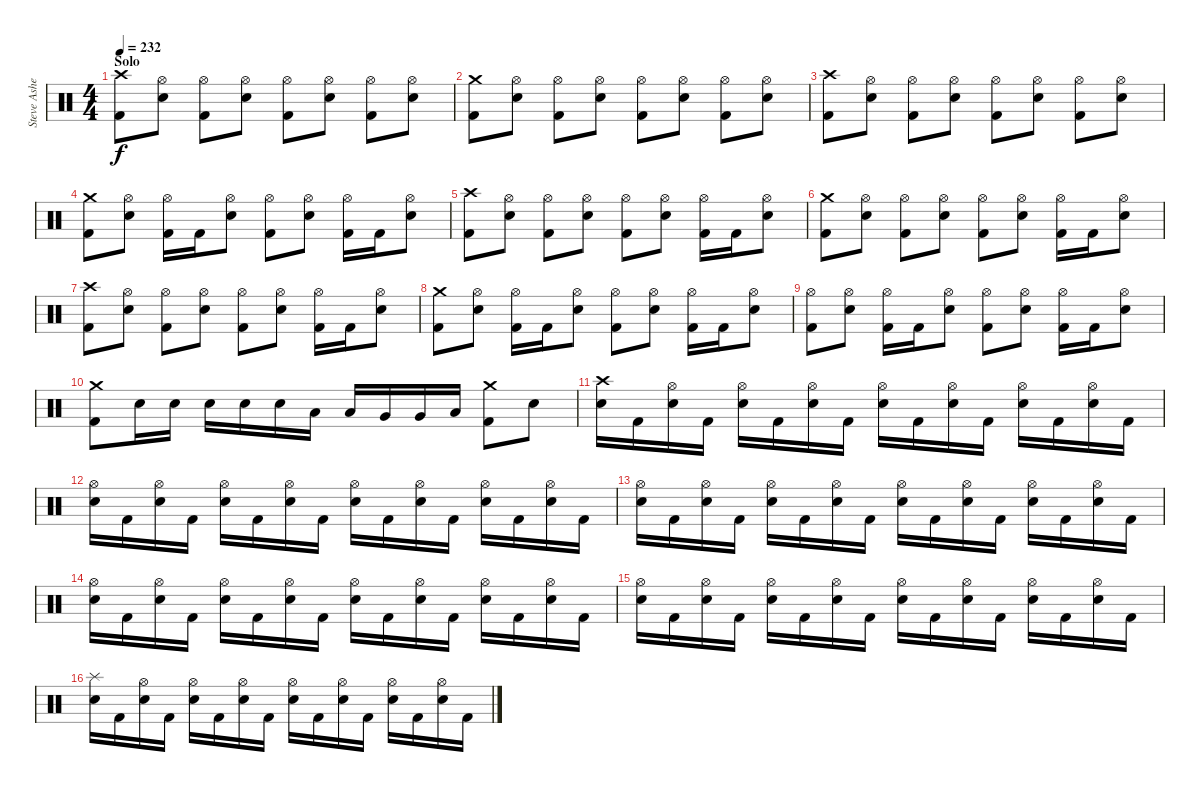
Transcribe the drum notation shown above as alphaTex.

\track ("Steve Asheim" "Steve Ashe") {instrument percussion}
\staff {score}
\articulation defaults
\ts (4 4)
\section ("" "Solo")
\tempo 232
\clef neutral
\ks c
("Crash high (hit)" "Kick (hit) 2").8{dy f} ("Hi-Hat (open)" "Electric Snare (hit)").8 ("Hi-Hat (open)" "Kick (hit) 2").8 ("Hi-Hat (open)" "Electric Snare (hit)").8 ("Hi-Hat (open)" "Kick (hit) 2").8 ("Hi-Hat (open)" "Electric Snare (hit)").8 ("Hi-Hat (open)" "Kick (hit) 2").8 ("Hi-Hat (open)" "Electric Snare (hit)").8 |
("Crash medium (hit)" "Kick (hit) 2").8 ("Hi-Hat (open)" "Electric Snare (hit)").8 ("Hi-Hat (open)" "Kick (hit) 2").8 ("Hi-Hat (open)" "Electric Snare (hit)").8 ("Hi-Hat (open)" "Kick (hit) 2").8 ("Hi-Hat (open)" "Electric Snare (hit)").8 ("Hi-Hat (open)" "Kick (hit) 2").8 ("Hi-Hat (open)" "Electric Snare (hit)").8 |
("Crash high (hit)" "Kick (hit) 2").8 ("Hi-Hat (open)" "Electric Snare (hit)").8 ("Hi-Hat (open)" "Kick (hit) 2").8 ("Hi-Hat (open)" "Electric Snare (hit)").8 ("Hi-Hat (open)" "Kick (hit) 2").8 ("Hi-Hat (open)" "Electric Snare (hit)").8 ("Hi-Hat (open)" "Kick (hit) 2").8 ("Hi-Hat (open)" "Electric Snare (hit)").8 |
("Crash medium (hit)" "Kick (hit) 2").8 ("Hi-Hat (open)" "Electric Snare (hit)").8 ("Hi-Hat (open)" "Kick (hit) 2").16 "Kick (hit) 2".16 ("Hi-Hat (open)" "Electric Snare (hit)").8 ("Hi-Hat (open)" "Kick (hit) 2").8 ("Hi-Hat (open)" "Electric Snare (hit)").8 ("Hi-Hat (open)" "Kick (hit) 2").16 "Kick (hit) 2".16 ("Hi-Hat (open)" "Electric Snare (hit)").8 |
("Crash high (hit)" "Kick (hit) 2").8 ("Hi-Hat (open)" "Electric Snare (hit)").8 ("Hi-Hat (open)" "Kick (hit) 2").8 ("Hi-Hat (open)" "Electric Snare (hit)").8 ("Hi-Hat (open)" "Kick (hit) 2").8 ("Hi-Hat (open)" "Electric Snare (hit)").8 ("Hi-Hat (open)" "Kick (hit) 2").16 "Kick (hit) 2".16 ("Hi-Hat (open)" "Electric Snare (hit)").8 |
("Crash medium (hit)" "Kick (hit) 2").8 ("Hi-Hat (open)" "Electric Snare (hit)").8 ("Hi-Hat (open)" "Kick (hit) 2").8 ("Hi-Hat (open)" "Electric Snare (hit)").8 ("Hi-Hat (open)" "Kick (hit) 2").8 ("Hi-Hat (open)" "Electric Snare (hit)").8 ("Hi-Hat (open)" "Kick (hit) 2").16 "Kick (hit) 2".16 ("Hi-Hat (open)" "Electric Snare (hit)").8 |
("Crash high (hit)" "Kick (hit) 2").8 ("Hi-Hat (open)" "Electric Snare (hit)").8 ("Hi-Hat (open)" "Kick (hit) 2").8 ("Hi-Hat (open)" "Electric Snare (hit)").8 ("Hi-Hat (open)" "Kick (hit) 2").8 ("Hi-Hat (open)" "Electric Snare (hit)").8 ("Hi-Hat (open)" "Kick (hit) 2").16 "Kick (hit) 2".16 ("Hi-Hat (open)" "Electric Snare (hit)").8 |
("Crash medium (hit)" "Kick (hit) 2").8 ("Hi-Hat (open)" "Electric Snare (hit)").8 ("Hi-Hat (open)" "Kick (hit) 2").16 "Kick (hit) 2".16 ("Hi-Hat (open)" "Electric Snare (hit)").8 ("Hi-Hat (open)" "Kick (hit) 2").8 ("Hi-Hat (open)" "Electric Snare (hit)").8 ("Hi-Hat (open)" "Kick (hit) 2").16 "Kick (hit) 2".16 ("Hi-Hat (open)" "Electric Snare (hit)").8 |
("Hi-Hat (open)" "Kick (hit) 2").8 ("Hi-Hat (open)" "Electric Snare (hit)").8 ("Hi-Hat (open)" "Kick (hit) 2").16 "Kick (hit) 2".16 ("Hi-Hat (open)" "Electric Snare (hit)").8 ("Hi-Hat (open)" "Kick (hit) 2").8 ("Hi-Hat (open)" "Electric Snare (hit)").8 ("Hi-Hat (open)" "Kick (hit) 2").16 "Kick (hit) 2".16 ("Hi-Hat (open)" "Electric Snare (hit)").8 |
("Crash medium (hit)" "Kick (hit) 2").8 "Electric Snare (hit)".16 "Electric Snare (hit)".16 "Electric Snare (hit)".16 "Electric Snare (hit)".16 "Electric Snare (hit)".16 "Low Tom (hit)".16 "Low Tom (hit)".16 "Very Low Tom (hit)".16 "Very Low Tom (hit)".16 "Low Floor Tom (hit)".16 ("Crash medium (hit)" "Kick (hit) 2").8 "Electric Snare (hit)".8 |
("Crash high (hit)" "Electric Snare (hit)").16 "Kick (hit) 2".16 ("Hi-Hat (open)" "Electric Snare (hit)").16 "Kick (hit) 2".16 ("Hi-Hat (open)" "Electric Snare (hit)").16 "Kick (hit) 2".16 ("Hi-Hat (open)" "Electric Snare (hit)").16 "Kick (hit) 2".16 ("Hi-Hat (open)" "Electric Snare (hit)").16 "Kick (hit) 2".16 ("Hi-Hat (open)" "Electric Snare (hit)").16 "Kick (hit) 2".16 ("Hi-Hat (open)" "Electric Snare (hit)").16 "Kick (hit) 2".16 ("Hi-Hat (open)" "Electric Snare (hit)").16 "Kick (hit) 2".16 |
("Hi-Hat (open)" "Electric Snare (hit)").16 "Kick (hit) 2".16 ("Hi-Hat (open)" "Electric Snare (hit)").16 "Kick (hit) 2".16 ("Hi-Hat (open)" "Electric Snare (hit)").16 "Kick (hit) 2".16 ("Hi-Hat (open)" "Electric Snare (hit)").16 "Kick (hit) 2".16 ("Hi-Hat (open)" "Electric Snare (hit)").16 "Kick (hit) 2".16 ("Hi-Hat (open)" "Electric Snare (hit)").16 "Kick (hit) 2".16 ("Hi-Hat (open)" "Electric Snare (hit)").16 "Kick (hit) 2".16 ("Hi-Hat (open)" "Electric Snare (hit)").16 "Kick (hit) 2".16 |
("Hi-Hat (open)" "Electric Snare (hit)").16 "Kick (hit) 2".16 ("Hi-Hat (open)" "Electric Snare (hit)").16 "Kick (hit) 2".16 ("Hi-Hat (open)" "Electric Snare (hit)").16 "Kick (hit) 2".16 ("Hi-Hat (open)" "Electric Snare (hit)").16 "Kick (hit) 2".16 ("Hi-Hat (open)" "Electric Snare (hit)").16 "Kick (hit) 2".16 ("Hi-Hat (open)" "Electric Snare (hit)").16 "Kick (hit) 2".16 ("Hi-Hat (open)" "Electric Snare (hit)").16 "Kick (hit) 2".16 ("Hi-Hat (open)" "Electric Snare (hit)").16 "Kick (hit) 2".16 |
("Hi-Hat (open)" "Electric Snare (hit)").16 "Kick (hit) 2".16 ("Hi-Hat (open)" "Electric Snare (hit)").16 "Kick (hit) 2".16 ("Hi-Hat (open)" "Electric Snare (hit)").16 "Kick (hit) 2".16 ("Hi-Hat (open)" "Electric Snare (hit)").16 "Kick (hit) 2".16 ("Hi-Hat (open)" "Electric Snare (hit)").16 "Kick (hit) 2".16 ("Hi-Hat (open)" "Electric Snare (hit)").16 "Kick (hit) 2".16 ("Hi-Hat (open)" "Electric Snare (hit)").16 "Kick (hit) 2".16 ("Hi-Hat (open)" "Electric Snare (hit)").16 "Kick (hit) 2".16 |
("Hi-Hat (open)" "Electric Snare (hit)").16 "Kick (hit) 2".16 ("Hi-Hat (open)" "Electric Snare (hit)").16 "Kick (hit) 2".16 ("Hi-Hat (open)" "Electric Snare (hit)").16 "Kick (hit) 2".16 ("Hi-Hat (open)" "Electric Snare (hit)").16 "Kick (hit) 2".16 ("Hi-Hat (open)" "Electric Snare (hit)").16 "Kick (hit) 2".16 ("Hi-Hat (open)" "Electric Snare (hit)").16 "Kick (hit) 2".16 ("Hi-Hat (open)" "Electric Snare (hit)").16 "Kick (hit) 2".16 ("Hi-Hat (open)" "Electric Snare (hit)").16 "Kick (hit) 2".16 |
("Splash (hit)" "Electric Snare (hit)").16 "Kick (hit) 2".16 ("Hi-Hat (open)" "Electric Snare (hit)").16 "Kick (hit) 2".16 ("Hi-Hat (open)" "Electric Snare (hit)").16 "Kick (hit) 2".16 ("Hi-Hat (open)" "Electric Snare (hit)").16 "Kick (hit) 2".16 ("Hi-Hat (open)" "Electric Snare (hit)").16 "Kick (hit) 2".16 ("Hi-Hat (open)" "Electric Snare (hit)").16 "Kick (hit) 2".16 ("Hi-Hat (open)" "Electric Snare (hit)").16 "Kick (hit) 2".16 ("Hi-Hat (open)" "Electric Snare (hit)").16 "Kick (hit) 2".16
